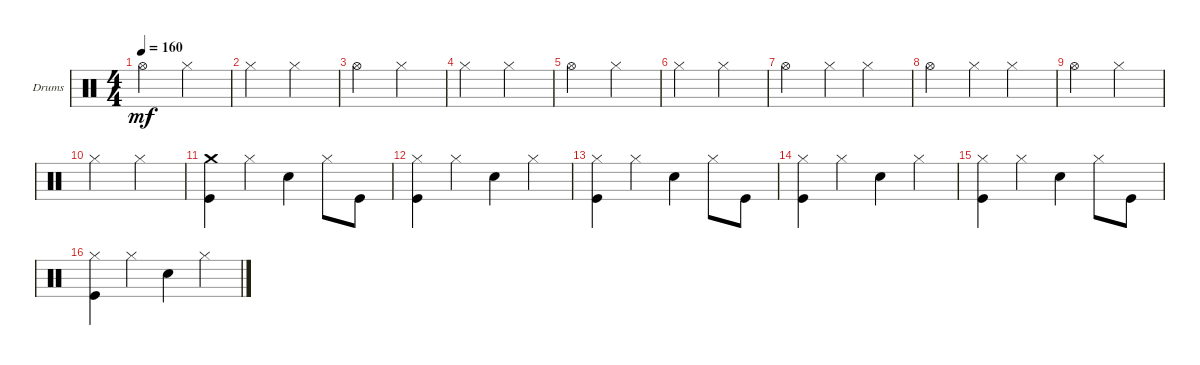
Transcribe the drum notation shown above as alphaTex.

\defaultSystemsLayout 4
\bracketExtendMode groupsimilarinstruments
\firstSystemTrackNameOrientation horizontal
\otherSystemsTrackNameOrientation horizontal
\track ("Drumkit" "Drums") {instrument percussion}
\staff {score}
\articulation defaults
\ts (4 4)
\tempo 160
\clef neutral
\scale
0.333333
\ks c "Hi-Hat (open)".2{dy mf} "Hi-Hat (closed)".2
|
\scale
0.333333 "Hi-Hat (closed)".2 "Hi-Hat (closed)".2 |
\scale
0.333333 "Hi-Hat (open)".2 "Hi-Hat (closed)".2 |
\scale
0.333333 "Hi-Hat (closed)".2 "Hi-Hat (closed)".2 |
\scale
0.333333 "Hi-Hat (open)".2 "Hi-Hat (closed)".2 |
\scale
0.333333 "Hi-Hat (closed)".2 "Hi-Hat (closed)".2 |
\scale
0.333333 "Hi-Hat (open)".2 "Hi-Hat (closed)".4 "Hi-Hat (closed)".2 |
\scale
0.333333 "Hi-Hat (open)".2 "Hi-Hat (closed)".4 "Hi-Hat (closed)".2 |
\scale
0.333333 "Hi-Hat (open)".2 "Hi-Hat (closed)".2 |
\scale
0.333333 "Hi-Hat (closed)".2 "Hi-Hat (closed)".2 |
\scale
0.333333 ("Kick (hit)" "Crash medium (hit)").4 "Hi-Hat (closed)".4 "Snare (hit) 2".4 "Hi-Hat (closed)".8 "Kick (hit)".8 |
\scale
0.333333 ("Kick (hit)" "Hi-Hat (closed)").4 "Hi-Hat (closed)".4 "Snare (hit) 2".4 "Hi-Hat (closed)".4 |
\scale
0.333333 ("Kick (hit)" "Hi-Hat (closed)").4 "Hi-Hat (closed)".4 "Snare (hit) 2".4 "Hi-Hat (closed)".8 "Kick (hit)".8 |
\scale
0.333333 ("Kick (hit)" "Hi-Hat (closed)").4 "Hi-Hat (closed)".4 "Snare (hit) 2".4 "Hi-Hat (closed)".4 |
\scale
0.333333 ("Kick (hit)" "Hi-Hat (closed)").4 "Hi-Hat (closed)".4 "Snare (hit) 2".4 "Hi-Hat (closed)".8 "Kick (hit)".8 |
\scale
0.333333 ("Kick (hit)" "Hi-Hat (closed)").4 "Hi-Hat (closed)".4 "Snare (hit) 2".4 "Hi-Hat (closed)".4
